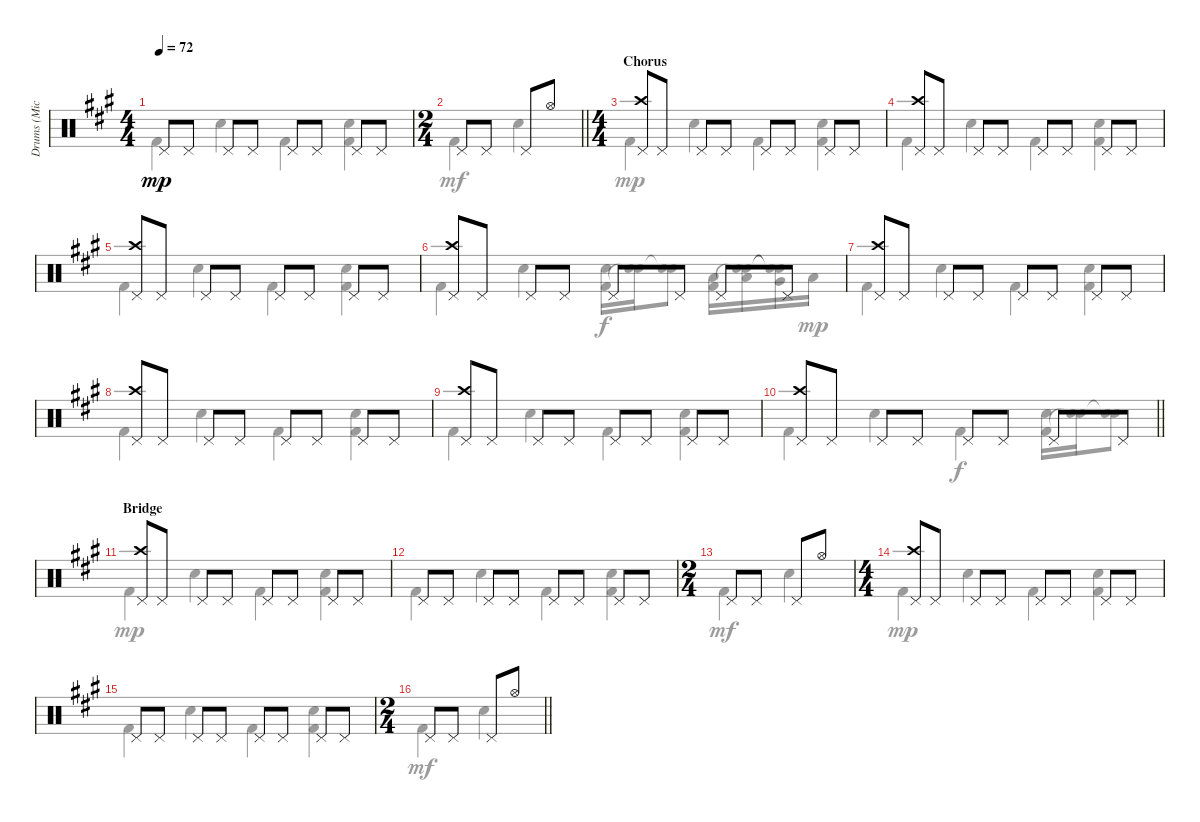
\track ("Drums (Mick Fleetwood)" "Drums (Mic") {instrument percussion}
\staff {score}
\articulation defaults
\voice
\ts (4 4)
\tempo 72
\clef neutral
\ks f#minor "Pedal Hi-Hat (hit)".8{dy mp} "Pedal Hi-Hat (hit)".8 "Pedal Hi-Hat (hit)".8 "Pedal Hi-Hat (hit)".8 "Pedal Hi-Hat (hit)".8 "Pedal Hi-Hat (hit)".8 "Pedal Hi-Hat (hit)".8 "Pedal Hi-Hat (hit)".8
|
\ts (2 4)
\barLineRight lightlight "Pedal Hi-Hat (hit)".8 "Pedal Hi-Hat (hit)".8 "Pedal Hi-Hat (hit)".8 "Hi-Hat (open)".8
|
\ts (4 4)
\section ("" "Chorus")
("Crash high (hit)" "Pedal Hi-Hat (hit)").8 "Pedal Hi-Hat (hit)".8 "Pedal Hi-Hat (hit)".8 "Pedal Hi-Hat (hit)".8 "Pedal Hi-Hat (hit)".8 "Pedal Hi-Hat (hit)".8 "Pedal Hi-Hat (hit)".8 "Pedal Hi-Hat (hit)".8 |
("Crash high (hit)" "Pedal Hi-Hat (hit)").8 "Pedal Hi-Hat (hit)".8 "Pedal Hi-Hat (hit)".8 "Pedal Hi-Hat (hit)".8 "Pedal Hi-Hat (hit)".8 "Pedal Hi-Hat (hit)".8 "Pedal Hi-Hat (hit)".8 "Pedal Hi-Hat (hit)".8 |
("Crash high (hit)" "Pedal Hi-Hat (hit)").8 "Pedal Hi-Hat (hit)".8 "Pedal Hi-Hat (hit)".8 "Pedal Hi-Hat (hit)".8 "Pedal Hi-Hat (hit)".8 "Pedal Hi-Hat (hit)".8 "Pedal Hi-Hat (hit)".8 "Pedal Hi-Hat (hit)".8 |
("Crash high (hit)" "Pedal Hi-Hat (hit)").8 "Pedal Hi-Hat (hit)".8 "Pedal Hi-Hat (hit)".8 "Pedal Hi-Hat (hit)".8 "Pedal Hi-Hat (hit)".8 "Pedal Hi-Hat (hit)".8 "Pedal Hi-Hat (hit)".8 "Pedal Hi-Hat (hit)".8 |
("Crash high (hit)" "Pedal Hi-Hat (hit)").8 "Pedal Hi-Hat (hit)".8 "Pedal Hi-Hat (hit)".8 "Pedal Hi-Hat (hit)".8 "Pedal Hi-Hat (hit)".8 "Pedal Hi-Hat (hit)".8 "Pedal Hi-Hat (hit)".8 "Pedal Hi-Hat (hit)".8 |
("Crash high (hit)" "Pedal Hi-Hat (hit)").8 "Pedal Hi-Hat (hit)".8 "Pedal Hi-Hat (hit)".8 "Pedal Hi-Hat (hit)".8 "Pedal Hi-Hat (hit)".8 "Pedal Hi-Hat (hit)".8 "Pedal Hi-Hat (hit)".8 "Pedal Hi-Hat (hit)".8 |
("Crash high (hit)" "Pedal Hi-Hat (hit)").8 "Pedal Hi-Hat (hit)".8 "Pedal Hi-Hat (hit)".8 "Pedal Hi-Hat (hit)".8 "Pedal Hi-Hat (hit)".8 "Pedal Hi-Hat (hit)".8 "Pedal Hi-Hat (hit)".8 "Pedal Hi-Hat (hit)".8 |
\barLineRight lightlight
("Crash high (hit)" "Pedal Hi-Hat (hit)").8 "Pedal Hi-Hat (hit)".8 "Pedal Hi-Hat (hit)".8 "Pedal Hi-Hat (hit)".8 "Pedal Hi-Hat (hit)".8 "Pedal Hi-Hat (hit)".8 "Pedal Hi-Hat (hit)".8 "Pedal Hi-Hat (hit)".8 |
\section ("" "Bridge")
("Crash high (hit)" "Pedal Hi-Hat (hit)").8 "Pedal Hi-Hat (hit)".8 "Pedal Hi-Hat (hit)".8 "Pedal Hi-Hat (hit)".8 "Pedal Hi-Hat (hit)".8 "Pedal Hi-Hat (hit)".8 "Pedal Hi-Hat (hit)".8 "Pedal Hi-Hat (hit)".8 |
"Pedal Hi-Hat (hit)".8 "Pedal Hi-Hat (hit)".8 "Pedal Hi-Hat (hit)".8 "Pedal Hi-Hat (hit)".8 "Pedal Hi-Hat (hit)".8 "Pedal Hi-Hat (hit)".8 "Pedal Hi-Hat (hit)".8 "Pedal Hi-Hat (hit)".8 |
\ts (2 4)
"Pedal Hi-Hat (hit)".8 "Pedal Hi-Hat (hit)".8 "Pedal Hi-Hat (hit)".8 "Hi-Hat (open)".8 |
\ts (4 4)
("Crash high (hit)" "Pedal Hi-Hat (hit)").8 "Pedal Hi-Hat (hit)".8 "Pedal Hi-Hat (hit)".8 "Pedal Hi-Hat (hit)".8 "Pedal Hi-Hat (hit)".8 "Pedal Hi-Hat (hit)".8 "Pedal Hi-Hat (hit)".8 "Pedal Hi-Hat (hit)".8 |
"Pedal Hi-Hat (hit)".8 "Pedal Hi-Hat (hit)".8 "Pedal Hi-Hat (hit)".8 "Pedal Hi-Hat (hit)".8 "Pedal Hi-Hat (hit)".8 "Pedal Hi-Hat (hit)".8 "Pedal Hi-Hat (hit)".8 "Pedal Hi-Hat (hit)".8 |
\ts (2 4)
\barLineRight lightlight "Pedal Hi-Hat (hit)".8 "Pedal Hi-Hat (hit)".8 "Pedal Hi-Hat (hit)".8 "Hi-Hat (open)".8
\voice
\clef neutral
\ottava regular
\simile none
\ks f#minor "Kick (hit) 2".4{dy mp} "Snare (hit) 2".4 "Kick (hit) 2".4
("Snare (hit) 2" "Kick (hit) 2").4 |
\barLineRight lightlight "Kick (hit) 2".4{dy mf} "Snare (hit) 2".4
|
"Kick (hit) 2".4{dy mp} "Snare (hit) 2".4 "Kick (hit) 2".4 ("Snare (hit) 2" "Kick (hit) 2").4 |
"Kick (hit) 2".4 "Snare (hit) 2".4 "Kick (hit) 2".4 ("Snare (hit) 2" "Kick (hit) 2").4 |
"Kick (hit) 2".4 "Snare (hit) 2".4 "Kick (hit) 2".4 ("Snare (hit) 2" "Kick (hit) 2").4 |
"Kick (hit) 2".4 "Snare (hit) 2".4 ("Snare (hit) 2" "Kick (hit) 2").16{dy f} ("Snare (hit) 2" "Snare (hit)"{t}).16 ("Snare (hit) 2" "Snare (hit)"{t}).8 ("Low Tom (hit)" "Kick (hit) 2").16 ("Low Tom (hit)" "Snare (hit)"{t} "Snare (hit)").16 ("Very Low Tom (hit)" "Snare (hit)"{t} "Snare (hit)"{t}).16 "Low Floor Tom (hit)".16{dy mp} |
"Kick (hit) 2".4 "Snare (hit) 2".4 "Kick (hit) 2".4 ("Snare (hit) 2" "Kick (hit) 2").4 |
"Kick (hit) 2".4 "Snare (hit) 2".4 "Kick (hit) 2".4 ("Snare (hit) 2" "Kick (hit) 2").4 |
"Kick (hit) 2".4 "Snare (hit) 2".4 "Kick (hit) 2".4 ("Snare (hit) 2" "Kick (hit) 2").4 |
\barLineRight lightlight "Kick (hit) 2".4 "Snare (hit) 2".4 "Kick (hit) 2".4{dy f}
("Snare (hit) 2" "Kick (hit) 2").16 ("Snare (hit) 2" "Snare (hit)"{t}).16 ("Snare (hit) 2" "Snare (hit)"{t}).8 |
"Kick (hit) 2".4{dy mp} "Snare (hit) 2".4 "Kick (hit) 2".4 ("Snare (hit) 2" "Kick (hit) 2").4 |
"Kick (hit) 2".4 "Snare (hit) 2".4 "Kick (hit) 2".4 ("Snare (hit) 2" "Kick (hit) 2").4 |
"Kick (hit) 2".4{dy mf} "Snare (hit) 2".4 |
"Kick (hit) 2".4{dy mp} "Snare (hit) 2".4 "Kick (hit) 2".4 ("Snare (hit) 2" "Kick (hit) 2").4 |
"Kick (hit) 2".4 "Snare (hit) 2".4 "Kick (hit) 2".4 ("Snare (hit) 2" "Kick (hit) 2").4 |
\barLineRight lightlight "Kick (hit) 2".4{dy mf} "Snare (hit) 2".4
